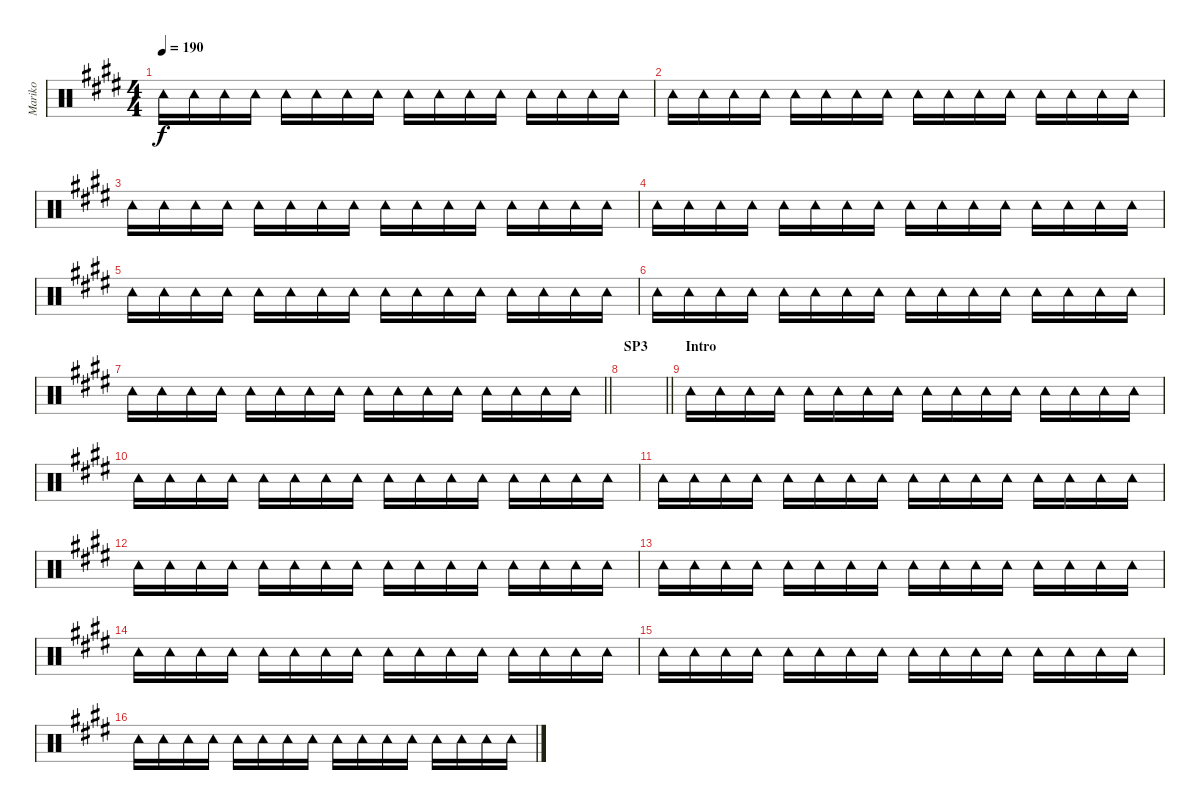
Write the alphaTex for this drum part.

\track ("Mariko" "Mariko") {mute instrument percussion}
\staff {score}
\articulation defaults
\ts (4 4)
\tempo 190
\clef neutral
\ks e "Tambourine (hit)".16{dy f} "Tambourine (hit)".16 "Tambourine (hit)".16 "Tambourine (hit)".16 "Tambourine (hit)".16 "Tambourine (hit)".16 "Tambourine (hit)".16 "Tambourine (hit)".16 "Tambourine (hit)".16 "Tambourine (hit)".16 "Tambourine (hit)".16 "Tambourine (hit)".16 "Tambourine (hit)".16 "Tambourine (hit)".16 "Tambourine (hit)".16 "Tambourine (hit)".16
|
"Tambourine (hit)".16 "Tambourine (hit)".16 "Tambourine (hit)".16 "Tambourine (hit)".16 "Tambourine (hit)".16 "Tambourine (hit)".16 "Tambourine (hit)".16 "Tambourine (hit)".16 "Tambourine (hit)".16 "Tambourine (hit)".16 "Tambourine (hit)".16 "Tambourine (hit)".16 "Tambourine (hit)".16 "Tambourine (hit)".16 "Tambourine (hit)".16 "Tambourine (hit)".16 |
"Tambourine (hit)".16 "Tambourine (hit)".16 "Tambourine (hit)".16 "Tambourine (hit)".16 "Tambourine (hit)".16 "Tambourine (hit)".16 "Tambourine (hit)".16 "Tambourine (hit)".16 "Tambourine (hit)".16 "Tambourine (hit)".16 "Tambourine (hit)".16 "Tambourine (hit)".16 "Tambourine (hit)".16 "Tambourine (hit)".16 "Tambourine (hit)".16 "Tambourine (hit)".16 |
"Tambourine (hit)".16 "Tambourine (hit)".16 "Tambourine (hit)".16 "Tambourine (hit)".16 "Tambourine (hit)".16 "Tambourine (hit)".16 "Tambourine (hit)".16 "Tambourine (hit)".16 "Tambourine (hit)".16 "Tambourine (hit)".16 "Tambourine (hit)".16 "Tambourine (hit)".16 "Tambourine (hit)".16 "Tambourine (hit)".16 "Tambourine (hit)".16 "Tambourine (hit)".16 |
"Tambourine (hit)".16 "Tambourine (hit)".16 "Tambourine (hit)".16 "Tambourine (hit)".16 "Tambourine (hit)".16 "Tambourine (hit)".16 "Tambourine (hit)".16 "Tambourine (hit)".16 "Tambourine (hit)".16 "Tambourine (hit)".16 "Tambourine (hit)".16 "Tambourine (hit)".16 "Tambourine (hit)".16 "Tambourine (hit)".16 "Tambourine (hit)".16 "Tambourine (hit)".16 |
"Tambourine (hit)".16 "Tambourine (hit)".16 "Tambourine (hit)".16 "Tambourine (hit)".16 "Tambourine (hit)".16 "Tambourine (hit)".16 "Tambourine (hit)".16 "Tambourine (hit)".16 "Tambourine (hit)".16 "Tambourine (hit)".16 "Tambourine (hit)".16 "Tambourine (hit)".16 "Tambourine (hit)".16 "Tambourine (hit)".16 "Tambourine (hit)".16 "Tambourine (hit)".16 |
\barLineRight lightlight "Tambourine (hit)".16 "Tambourine (hit)".16 "Tambourine (hit)".16 "Tambourine (hit)".16 "Tambourine (hit)".16 "Tambourine (hit)".16 "Tambourine (hit)".16 "Tambourine (hit)".16 "Tambourine (hit)".16 "Tambourine (hit)".16 "Tambourine (hit)".16 "Tambourine (hit)".16 "Tambourine (hit)".16 "Tambourine (hit)".16 "Tambourine (hit)".16 "Tambourine (hit)".16
|
\section ("" "SP3")
\barLineRight lightlight
|
\section ("" "Intro")
"Tambourine (hit)".16 "Tambourine (hit)".16 "Tambourine (hit)".16 "Tambourine (hit)".16 "Tambourine (hit)".16 "Tambourine (hit)".16 "Tambourine (hit)".16 "Tambourine (hit)".16 "Tambourine (hit)".16 "Tambourine (hit)".16 "Tambourine (hit)".16 "Tambourine (hit)".16 "Tambourine (hit)".16 "Tambourine (hit)".16 "Tambourine (hit)".16 "Tambourine (hit)".16 |
"Tambourine (hit)".16 "Tambourine (hit)".16 "Tambourine (hit)".16 "Tambourine (hit)".16 "Tambourine (hit)".16 "Tambourine (hit)".16 "Tambourine (hit)".16 "Tambourine (hit)".16 "Tambourine (hit)".16 "Tambourine (hit)".16 "Tambourine (hit)".16 "Tambourine (hit)".16 "Tambourine (hit)".16 "Tambourine (hit)".16 "Tambourine (hit)".16 "Tambourine (hit)".16 |
"Tambourine (hit)".16 "Tambourine (hit)".16 "Tambourine (hit)".16 "Tambourine (hit)".16 "Tambourine (hit)".16 "Tambourine (hit)".16 "Tambourine (hit)".16 "Tambourine (hit)".16 "Tambourine (hit)".16 "Tambourine (hit)".16 "Tambourine (hit)".16 "Tambourine (hit)".16 "Tambourine (hit)".16 "Tambourine (hit)".16 "Tambourine (hit)".16 "Tambourine (hit)".16 |
"Tambourine (hit)".16 "Tambourine (hit)".16 "Tambourine (hit)".16 "Tambourine (hit)".16 "Tambourine (hit)".16 "Tambourine (hit)".16 "Tambourine (hit)".16 "Tambourine (hit)".16 "Tambourine (hit)".16 "Tambourine (hit)".16 "Tambourine (hit)".16 "Tambourine (hit)".16 "Tambourine (hit)".16 "Tambourine (hit)".16 "Tambourine (hit)".16 "Tambourine (hit)".16 |
"Tambourine (hit)".16 "Tambourine (hit)".16 "Tambourine (hit)".16 "Tambourine (hit)".16 "Tambourine (hit)".16 "Tambourine (hit)".16 "Tambourine (hit)".16 "Tambourine (hit)".16 "Tambourine (hit)".16 "Tambourine (hit)".16 "Tambourine (hit)".16 "Tambourine (hit)".16 "Tambourine (hit)".16 "Tambourine (hit)".16 "Tambourine (hit)".16 "Tambourine (hit)".16 |
"Tambourine (hit)".16 "Tambourine (hit)".16 "Tambourine (hit)".16 "Tambourine (hit)".16 "Tambourine (hit)".16 "Tambourine (hit)".16 "Tambourine (hit)".16 "Tambourine (hit)".16 "Tambourine (hit)".16 "Tambourine (hit)".16 "Tambourine (hit)".16 "Tambourine (hit)".16 "Tambourine (hit)".16 "Tambourine (hit)".16 "Tambourine (hit)".16 "Tambourine (hit)".16 |
"Tambourine (hit)".16 "Tambourine (hit)".16 "Tambourine (hit)".16 "Tambourine (hit)".16 "Tambourine (hit)".16 "Tambourine (hit)".16 "Tambourine (hit)".16 "Tambourine (hit)".16 "Tambourine (hit)".16 "Tambourine (hit)".16 "Tambourine (hit)".16 "Tambourine (hit)".16 "Tambourine (hit)".16 "Tambourine (hit)".16 "Tambourine (hit)".16 "Tambourine (hit)".16 |
"Tambourine (hit)".16 "Tambourine (hit)".16 "Tambourine (hit)".16 "Tambourine (hit)".16 "Tambourine (hit)".16 "Tambourine (hit)".16 "Tambourine (hit)".16 "Tambourine (hit)".16 "Tambourine (hit)".16 "Tambourine (hit)".16 "Tambourine (hit)".16 "Tambourine (hit)".16 "Tambourine (hit)".16 "Tambourine (hit)".16 "Tambourine (hit)".16 "Tambourine (hit)".16
